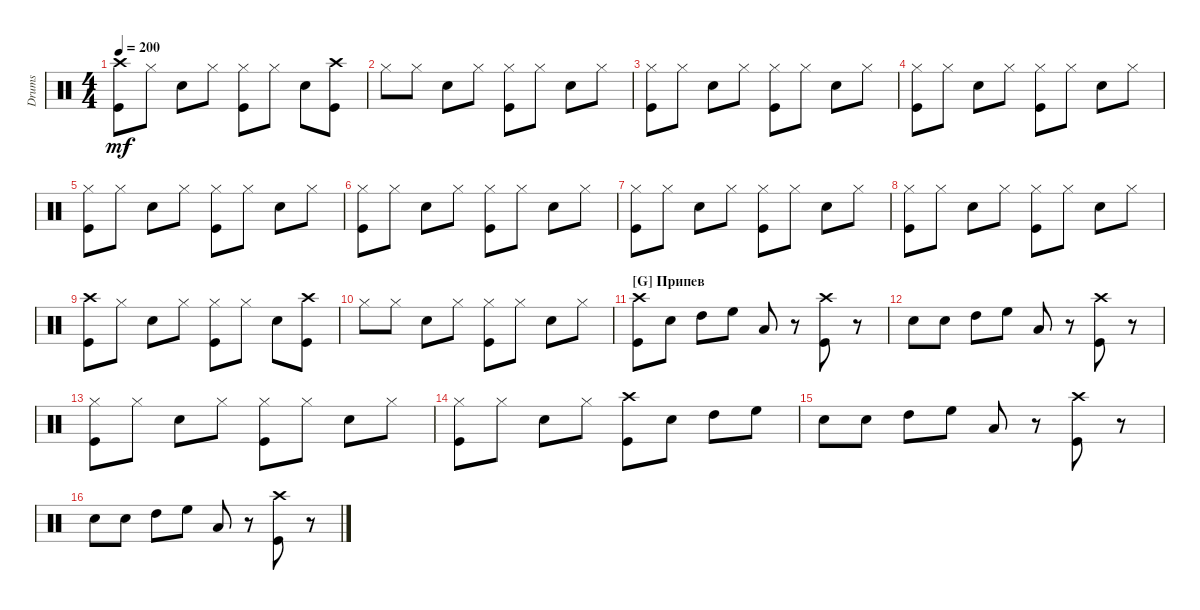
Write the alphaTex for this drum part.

\track ("Drumkit" "Drums") {instrument percussion}
\staff {score}
\articulation defaults
\ts (4 4)
\tempo 200
\clef neutral
\ks c
("Kick (hit)" "Crash high (hit)").8{dy mf} "Hi-Hat (closed)".8 "Snare (hit) 2".8 "Hi-Hat (closed)".8 ("Kick (hit)" "Hi-Hat (closed)").8 "Hi-Hat (closed)".8 "Snare (hit) 2".8 ("Crash high (hit)" "Kick (hit)").8 |
"Hi-Hat (closed)".8 "Hi-Hat (closed)".8 "Snare (hit) 2".8 "Hi-Hat (closed)".8 ("Kick (hit)" "Hi-Hat (closed)").8 "Hi-Hat (closed)".8 "Snare (hit) 2".8 "Hi-Hat (closed)".8 |
("Kick (hit)" "Hi-Hat (closed)").8 "Hi-Hat (closed)".8 "Snare (hit) 2".8 "Hi-Hat (closed)".8 ("Kick (hit)" "Hi-Hat (closed)").8 "Hi-Hat (closed)".8 "Snare (hit) 2".8 "Hi-Hat (closed)".8 |
("Kick (hit)" "Hi-Hat (closed)").8 "Hi-Hat (closed)".8 "Snare (hit) 2".8 "Hi-Hat (closed)".8 ("Kick (hit)" "Hi-Hat (closed)").8 "Hi-Hat (closed)".8 "Snare (hit) 2".8 "Hi-Hat (closed)".8 |
("Kick (hit)" "Hi-Hat (closed)").8 "Hi-Hat (closed)".8 "Snare (hit) 2".8 "Hi-Hat (closed)".8 ("Kick (hit)" "Hi-Hat (closed)").8 "Hi-Hat (closed)".8 "Snare (hit) 2".8 "Hi-Hat (closed)".8 |
("Kick (hit)" "Hi-Hat (closed)").8 "Hi-Hat (closed)".8 "Snare (hit) 2".8 "Hi-Hat (closed)".8 ("Kick (hit)" "Hi-Hat (closed)").8 "Hi-Hat (closed)".8 "Snare (hit) 2".8 "Hi-Hat (closed)".8 |
("Kick (hit)" "Hi-Hat (closed)").8 "Hi-Hat (closed)".8 "Snare (hit) 2".8 "Hi-Hat (closed)".8 ("Kick (hit)" "Hi-Hat (closed)").8 "Hi-Hat (closed)".8 "Snare (hit) 2".8 "Hi-Hat (closed)".8 |
("Kick (hit)" "Hi-Hat (closed)").8 "Hi-Hat (closed)".8 "Snare (hit) 2".8 "Hi-Hat (closed)".8 ("Kick (hit)" "Hi-Hat (closed)").8 "Hi-Hat (closed)".8 "Snare (hit) 2".8 "Hi-Hat (closed)".8 |
("Kick (hit)" "Crash high (hit)").8 "Hi-Hat (closed)".8 "Snare (hit) 2".8 "Hi-Hat (closed)".8 ("Kick (hit)" "Hi-Hat (closed)").8 "Hi-Hat (closed)".8 "Snare (hit) 2".8 ("Crash high (hit)" "Kick (hit)").8 |
"Hi-Hat (closed)".8 "Hi-Hat (closed)".8 "Snare (hit) 2".8 "Hi-Hat (closed)".8 ("Kick (hit)" "Hi-Hat (closed)").8 "Hi-Hat (closed)".8 "Snare (hit) 2".8 "Hi-Hat (closed)".8 |
\section ("G" "Припев")
("Crash high (hit)" "Kick (hit)").8 "Snare (hit) 2".8 "High Tom (hit)".8 "High Floor Tom (hit)".8 "Low Tom (hit)".8 r.8 ("Crash high (hit)" "Kick (hit)").8 r.8 |
"Snare (hit) 2".8 "Snare (hit) 2".8 "High Tom (hit)".8 "High Floor Tom (hit)".8 "Low Tom (hit)".8 r.8 ("Crash high (hit)" "Kick (hit)").8 r.8 |
("Kick (hit)" "Hi-Hat (closed)").8 "Hi-Hat (closed)".8 "Snare (hit) 2".8 "Hi-Hat (closed)".8 ("Kick (hit)" "Hi-Hat (closed)").8 "Hi-Hat (closed)".8 "Snare (hit) 2".8 "Hi-Hat (closed)".8 |
("Kick (hit)" "Hi-Hat (closed)").8 "Hi-Hat (closed)".8 "Snare (hit) 2".8 "Hi-Hat (closed)".8 ("Kick (hit)" "Crash high (hit)").8 "Snare (hit) 2".8 "High Tom (hit)".8 "High Floor Tom (hit)".8 |
"Snare (hit) 2".8 "Snare (hit) 2".8 "High Tom (hit)".8 "High Floor Tom (hit)".8 "Low Tom (hit)".8 r.8 ("Crash high (hit)" "Kick (hit)").8 r.8 |
"Snare (hit) 2".8 "Snare (hit) 2".8 "High Tom (hit)".8 "High Floor Tom (hit)".8 "Low Tom (hit)".8 r.8 ("Crash high (hit)" "Kick (hit)").8 r.8
